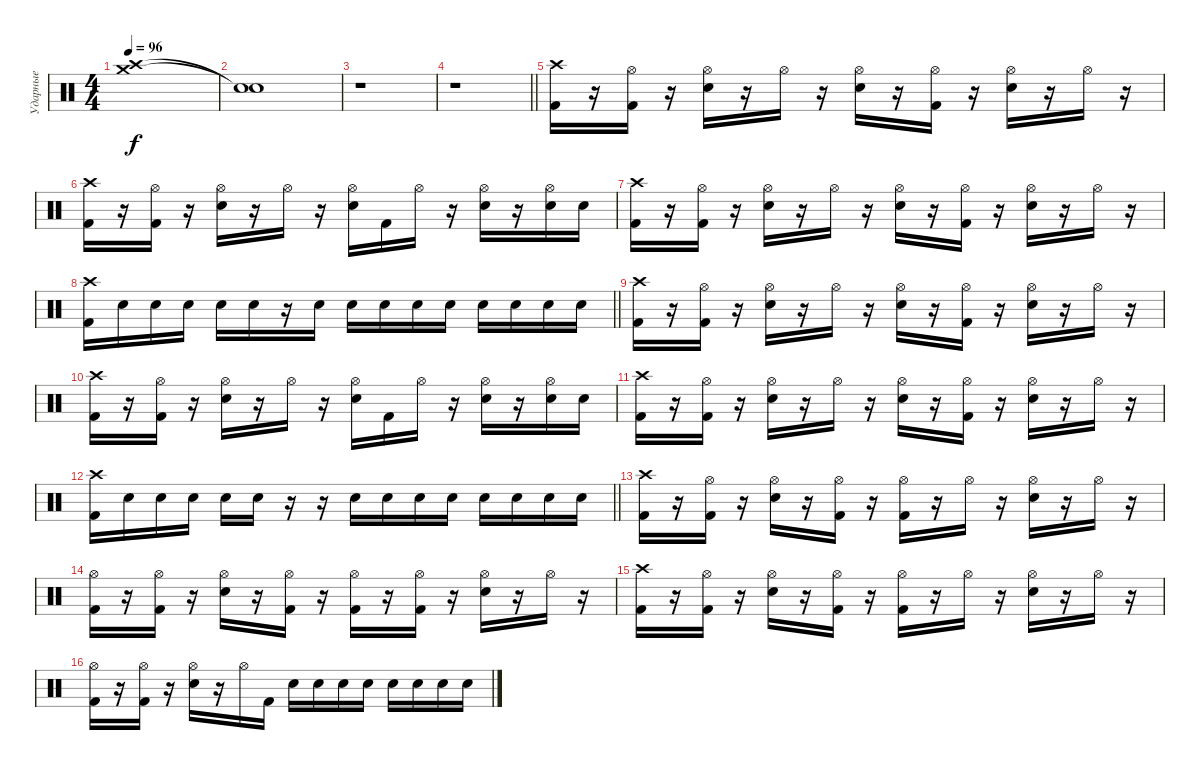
\track ("Ударные" "Ударные") {instrument percussion}
\staff {score}
\articulation defaults
\ts (4 4)
\tempo 96
\clef neutral
\ks c
("Crash high (hit)" "Crash medium (hit)").1{dy f} |
("Snare (hit)"{t} "Snare (hit)"{t}).1 |
r.1 |
\barLineRight lightlight
r.1 |
("Crash high (hit)" "Kick (hit) 2").16 r.16 ("Hi-Hat (open)" "Kick (hit) 2").16 r.16 ("Hi-Hat (open)" "Snare (hit) 2").16 r.16 "Hi-Hat (open)".16 r.16 ("Hi-Hat (open)" "Snare (hit) 2").16 r.16 ("Hi-Hat (open)" "Kick (hit) 2").16 r.16 ("Hi-Hat (open)" "Snare (hit) 2").16 r.16 "Hi-Hat (open)".16 r.16 |
("Crash high (hit)" "Kick (hit) 2").16 r.16 ("Hi-Hat (open)" "Kick (hit) 2").16 r.16 ("Hi-Hat (open)" "Snare (hit) 2").16 r.16 "Hi-Hat (open)".16 r.16 ("Hi-Hat (open)" "Snare (hit) 2").16 "Kick (hit) 2".16 "Hi-Hat (open)".16 r.16 ("Hi-Hat (open)" "Snare (hit) 2").16 r.16 ("Hi-Hat (open)" "Snare (hit) 2").16 "Snare (hit) 2".16 |
("Crash high (hit)" "Kick (hit) 2").16 r.16 ("Hi-Hat (open)" "Kick (hit) 2").16 r.16 ("Hi-Hat (open)" "Snare (hit) 2").16 r.16 "Hi-Hat (open)".16 r.16 ("Hi-Hat (open)" "Snare (hit) 2").16 r.16 ("Hi-Hat (open)" "Kick (hit) 2").16 r.16 ("Hi-Hat (open)" "Snare (hit) 2").16 r.16 "Hi-Hat (open)".16 r.16 |
\barLineRight lightlight
("Crash high (hit)" "Kick (hit) 2").16 "Snare (hit) 2".16 "Snare (hit) 2".16 "Snare (hit) 2".16 "Snare (hit) 2".16 "Snare (hit) 2".16 r.16 "Snare (hit) 2".16 "Snare (hit) 2".16 "Snare (hit) 2".16 "Snare (hit) 2".16 "Snare (hit) 2".16 "Snare (hit) 2".16 "Snare (hit) 2".16 "Snare (hit) 2".16 "Snare (hit) 2".16 |
("Crash high (hit)" "Kick (hit) 2").16 r.16 ("Hi-Hat (open)" "Kick (hit) 2").16 r.16 ("Hi-Hat (open)" "Snare (hit) 2").16 r.16 "Hi-Hat (open)".16 r.16 ("Hi-Hat (open)" "Snare (hit) 2").16 r.16 ("Hi-Hat (open)" "Kick (hit) 2").16 r.16 ("Hi-Hat (open)" "Snare (hit) 2").16 r.16 "Hi-Hat (open)".16 r.16 |
("Crash high (hit)" "Kick (hit) 2").16 r.16 ("Hi-Hat (open)" "Kick (hit) 2").16 r.16 ("Hi-Hat (open)" "Snare (hit) 2").16 r.16 "Hi-Hat (open)".16 r.16 ("Hi-Hat (open)" "Snare (hit) 2").16 "Kick (hit) 2".16 "Hi-Hat (open)".16 r.16 ("Hi-Hat (open)" "Snare (hit) 2").16 r.16 ("Hi-Hat (open)" "Snare (hit) 2").16 "Snare (hit) 2".16 |
("Crash high (hit)" "Kick (hit) 2").16 r.16 ("Hi-Hat (open)" "Kick (hit) 2").16 r.16 ("Hi-Hat (open)" "Snare (hit) 2").16 r.16 "Hi-Hat (open)".16 r.16 ("Hi-Hat (open)" "Snare (hit) 2").16 r.16 ("Hi-Hat (open)" "Kick (hit) 2").16 r.16 ("Hi-Hat (open)" "Snare (hit) 2").16 r.16 "Hi-Hat (open)".16 r.16 |
\barLineRight lightlight
("Crash high (hit)" "Kick (hit) 2").16 "Snare (hit) 2".16 "Snare (hit) 2".16 "Snare (hit) 2".16 "Snare (hit) 2".16 "Snare (hit) 2".16 r.16 r.16 "Snare (hit) 2".16 "Snare (hit) 2".16 "Snare (hit) 2".16 "Snare (hit) 2".16 "Snare (hit) 2".16 "Snare (hit) 2".16 "Snare (hit) 2".16 "Snare (hit) 2".16 |
("Crash high (hit)" "Kick (hit) 2").16 r.16 ("Hi-Hat (open)" "Kick (hit) 2").16 r.16 ("Hi-Hat (open)" "Snare (hit) 2").16 r.16 ("Hi-Hat (open)" "Kick (hit) 2").16 r.16 ("Hi-Hat (open)" "Kick (hit) 2").16 r.16 "Hi-Hat (open)".16 r.16 ("Hi-Hat (open)" "Snare (hit) 2").16 r.16 "Hi-Hat (open)".16 r.16 |
("Hi-Hat (open)" "Kick (hit) 2").16 r.16 ("Hi-Hat (open)" "Kick (hit) 2").16 r.16 ("Hi-Hat (open)" "Snare (hit) 2").16 r.16 ("Hi-Hat (open)" "Kick (hit) 2").16 r.16 ("Hi-Hat (open)" "Kick (hit) 2").16 r.16 ("Hi-Hat (open)" "Kick (hit) 2").16 r.16 ("Hi-Hat (open)" "Snare (hit) 2").16 r.16 "Hi-Hat (open)".16 r.16 |
("Crash high (hit)" "Kick (hit) 2").16 r.16 ("Hi-Hat (open)" "Kick (hit) 2").16 r.16 ("Hi-Hat (open)" "Snare (hit) 2").16 r.16 ("Hi-Hat (open)" "Kick (hit) 2").16 r.16 ("Hi-Hat (open)" "Kick (hit) 2").16 r.16 "Hi-Hat (open)".16 r.16 ("Hi-Hat (open)" "Snare (hit) 2").16 r.16 "Hi-Hat (open)".16 r.16 |
("Hi-Hat (open)" "Kick (hit) 2").16 r.16 ("Hi-Hat (open)" "Kick (hit) 2").16 r.16 ("Hi-Hat (open)" "Snare (hit) 2").16 r.16 "Hi-Hat (open)".16 "Kick (hit) 2".16 "Snare (hit) 2".16 "Snare (hit) 2".16 "Snare (hit) 2".16 "Snare (hit) 2".16 "Snare (hit) 2".16 "Snare (hit) 2".16 "Snare (hit) 2".16 "Snare (hit) 2".16
